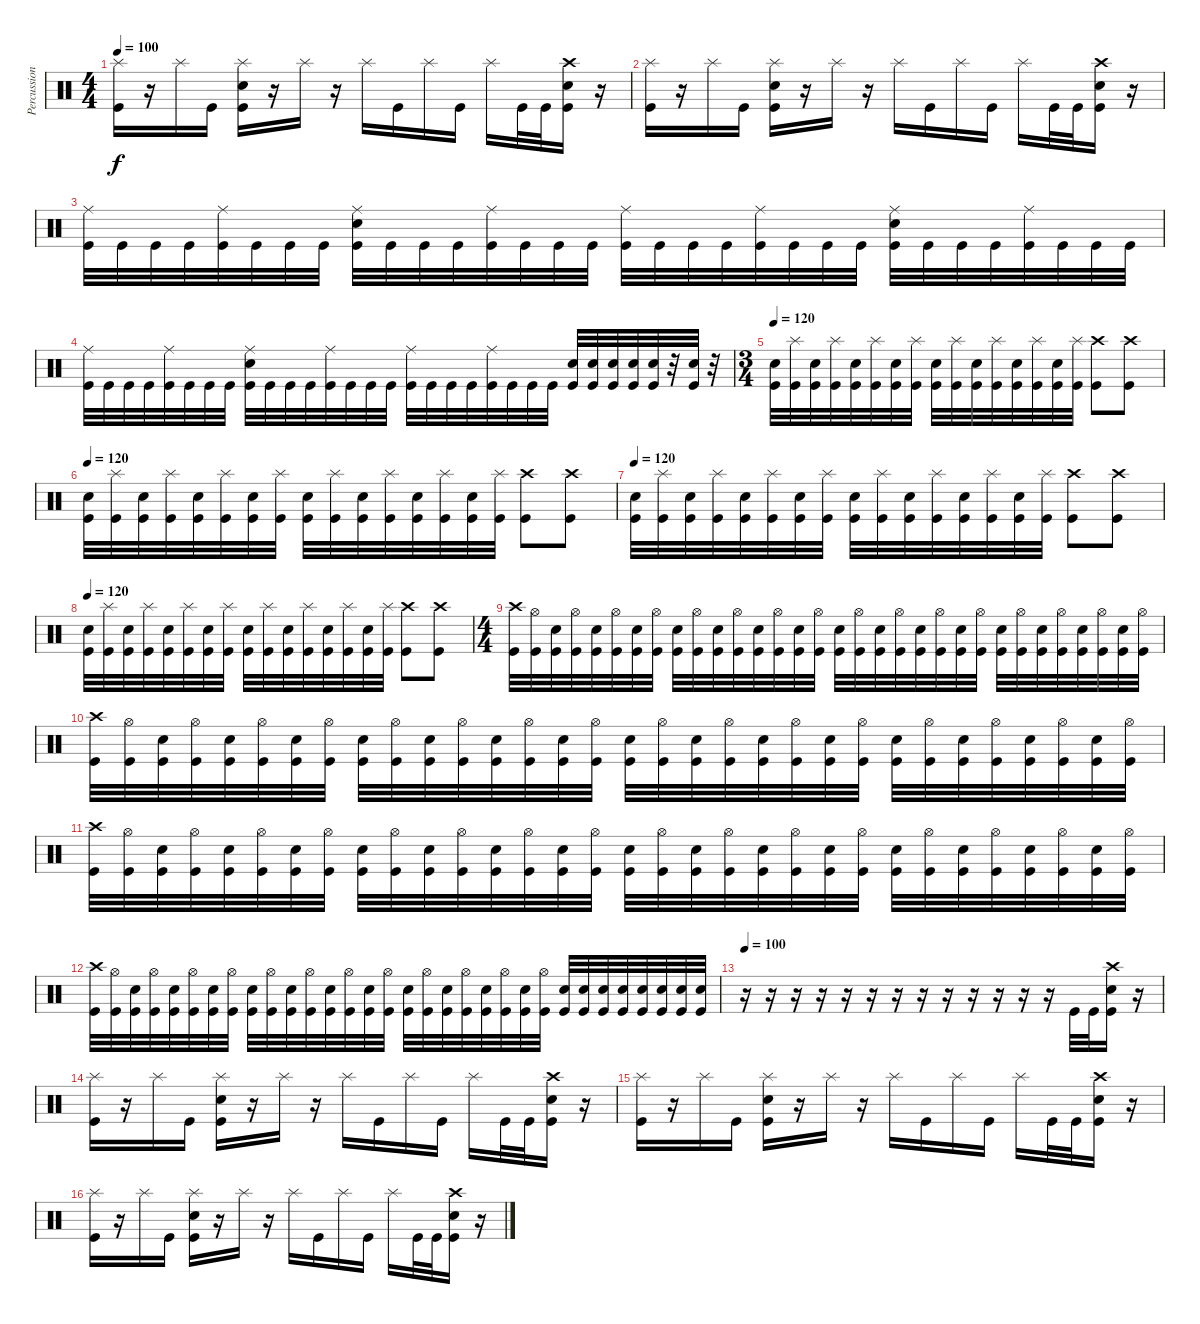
\track ("Percussion" "Percussion") {instrument percussion}
\staff {score}
\articulation defaults
\ts (4 4)
\tempo 100
\clef neutral
\ks c
("Splash (hit)" "Kick (hit)").16{dy f volume 16} r.16 "Splash (hit)".16 "Kick (hit)".16 ("Splash (hit)" "Electric Snare (hit)" "Kick (hit)").16 r.16 "Splash (hit)".16 r.16 "Splash (hit)".16 "Kick (hit)".16 "Splash (hit)".16 "Kick (hit)".16 "Splash (hit)".16 "Kick (hit)".32 "Kick (hit)".32 ("Crash high (hit)" "Electric Snare (hit)" "Kick (hit)").16 r.16 |
("Splash (hit)" "Kick (hit)").16{volume 16} r.16 "Splash (hit)".16 "Kick (hit)".16 ("Splash (hit)" "Electric Snare (hit)" "Kick (hit)").16 r.16 "Splash (hit)".16 r.16 "Splash (hit)".16 "Kick (hit)".16 "Splash (hit)".16 "Kick (hit)".16 "Splash (hit)".16 "Kick (hit)".32 "Kick (hit)".32 ("Crash high (hit)" "Electric Snare (hit)" "Kick (hit)").16 r.16 |
("Ride (middle)" "Kick (hit)").32 "Kick (hit)".32 "Kick (hit)".32 "Kick (hit)".32 ("Ride (middle)" "Kick (hit)").32 "Kick (hit)".32 "Kick (hit)".32 "Kick (hit)".32 ("Ride (middle)" "Electric Snare (hit)" "Kick (hit)").32 "Kick (hit)".32 "Kick (hit)".32 "Kick (hit)".32 ("Ride (middle)" "Kick (hit)").32 "Kick (hit)".32 "Kick (hit)".32 "Kick (hit)".32 ("Ride (middle)" "Kick (hit)").32 "Kick (hit)".32 "Kick (hit)".32 "Kick (hit)".32 ("Ride (middle)" "Kick (hit)").32 "Kick (hit)".32 "Kick (hit)".32 "Kick (hit)".32 ("Ride (middle)" "Electric Snare (hit)" "Kick (hit)").32 "Kick (hit)".32 "Kick (hit)".32 "Kick (hit)".32 ("Ride (middle)" "Kick (hit)").32 "Kick (hit)".32 "Kick (hit)".32 "Kick (hit)".32 |
("Ride (middle)" "Kick (hit)").32 "Kick (hit)".32 "Kick (hit)".32 "Kick (hit)".32 ("Ride (middle)" "Kick (hit)").32 "Kick (hit)".32 "Kick (hit)".32 "Kick (hit)".32 ("Ride (middle)" "Electric Snare (hit)" "Kick (hit)").32 "Kick (hit)".32 "Kick (hit)".32 "Kick (hit)".32 ("Ride (middle)" "Kick (hit)").32 "Kick (hit)".32 "Kick (hit)".32 "Kick (hit)".32 ("Ride (middle)" "Kick (hit)").32 "Kick (hit)".32 "Kick (hit)".32 "Kick (hit)".32 ("Ride (middle)" "Kick (hit)").32 "Kick (hit)".32 "Kick (hit)".32 "Kick (hit)".32 ("Electric Snare (hit)" "Kick (hit)").32 ("Electric Snare (hit)" "Kick (hit)").32 ("Electric Snare (hit)" "Kick (hit)").32 ("Electric Snare (hit)" "Kick (hit)").32 ("Electric Snare (hit)" "Kick (hit)").32 r.32 ("Electric Snare (hit)" "Kick (hit)").32 r.32 |
\ts (3 4)
\tempo 120
("Electric Snare (hit)" "Kick (hit)").32 ("Splash (hit)" "Kick (hit)").32 ("Electric Snare (hit)" "Kick (hit)").32 ("Splash (hit)" "Kick (hit)").32 ("Electric Snare (hit)" "Kick (hit)").32 ("Splash (hit)" "Kick (hit)").32 ("Electric Snare (hit)" "Kick (hit)").32 ("Splash (hit)" "Kick (hit)").32 ("Electric Snare (hit)" "Kick (hit)").32 ("Splash (hit)" "Kick (hit)").32 ("Electric Snare (hit)" "Kick (hit)").32 ("Splash (hit)" "Kick (hit)").32 ("Electric Snare (hit)" "Kick (hit)").32 ("Splash (hit)" "Kick (hit)").32 ("Electric Snare (hit)" "Kick (hit)").32 ("Splash (hit)" "Kick (hit)").32 ("Crash high (hit)" "Kick (hit)").8 ("Crash high (hit)" "Kick (hit)").8 |
\tempo 120
("Electric Snare (hit)" "Kick (hit)").32 ("Splash (hit)" "Kick (hit)").32 ("Electric Snare (hit)" "Kick (hit)").32 ("Splash (hit)" "Kick (hit)").32 ("Electric Snare (hit)" "Kick (hit)").32 ("Splash (hit)" "Kick (hit)").32 ("Electric Snare (hit)" "Kick (hit)").32 ("Splash (hit)" "Kick (hit)").32 ("Electric Snare (hit)" "Kick (hit)").32 ("Splash (hit)" "Kick (hit)").32 ("Electric Snare (hit)" "Kick (hit)").32 ("Splash (hit)" "Kick (hit)").32 ("Electric Snare (hit)" "Kick (hit)").32 ("Splash (hit)" "Kick (hit)").32 ("Electric Snare (hit)" "Kick (hit)").32 ("Splash (hit)" "Kick (hit)").32 ("Crash high (hit)" "Kick (hit)").8 ("Crash high (hit)" "Kick (hit)").8 |
\tempo 120
("Electric Snare (hit)" "Kick (hit)").32 ("Splash (hit)" "Kick (hit)").32 ("Electric Snare (hit)" "Kick (hit)").32 ("Splash (hit)" "Kick (hit)").32 ("Electric Snare (hit)" "Kick (hit)").32 ("Splash (hit)" "Kick (hit)").32 ("Electric Snare (hit)" "Kick (hit)").32 ("Splash (hit)" "Kick (hit)").32 ("Electric Snare (hit)" "Kick (hit)").32 ("Splash (hit)" "Kick (hit)").32 ("Electric Snare (hit)" "Kick (hit)").32 ("Splash (hit)" "Kick (hit)").32 ("Electric Snare (hit)" "Kick (hit)").32 ("Splash (hit)" "Kick (hit)").32 ("Electric Snare (hit)" "Kick (hit)").32 ("Splash (hit)" "Kick (hit)").32 ("Crash high (hit)" "Kick (hit)").8 ("Crash high (hit)" "Kick (hit)").8 |
\tempo 120
("Electric Snare (hit)" "Kick (hit)").32 ("Splash (hit)" "Kick (hit)").32 ("Electric Snare (hit)" "Kick (hit)").32 ("Splash (hit)" "Kick (hit)").32 ("Electric Snare (hit)" "Kick (hit)").32 ("Splash (hit)" "Kick (hit)").32 ("Electric Snare (hit)" "Kick (hit)").32 ("Splash (hit)" "Kick (hit)").32 ("Electric Snare (hit)" "Kick (hit)").32 ("Splash (hit)" "Kick (hit)").32 ("Electric Snare (hit)" "Kick (hit)").32 ("Splash (hit)" "Kick (hit)").32 ("Electric Snare (hit)" "Kick (hit)").32 ("Splash (hit)" "Kick (hit)").32 ("Electric Snare (hit)" "Kick (hit)").32 ("Splash (hit)" "Kick (hit)").32 ("Crash high (hit)" "Kick (hit)").8 ("Crash high (hit)" "Kick (hit)").8 |
\ts (4 4)
("Crash high (hit)" "Kick (hit)").32 ("Hi-Hat (open)" "Kick (hit)").32 ("Electric Snare (hit)" "Kick (hit)").32 ("Hi-Hat (open)" "Kick (hit)").32 ("Electric Snare (hit)" "Kick (hit)").32 ("Hi-Hat (open)" "Kick (hit)").32 ("Electric Snare (hit)" "Kick (hit)").32 ("Hi-Hat (open)" "Kick (hit)").32 ("Electric Snare (hit)" "Kick (hit)").32 ("Hi-Hat (open)" "Kick (hit)").32 ("Electric Snare (hit)" "Kick (hit)").32 ("Hi-Hat (open)" "Kick (hit)").32 ("Electric Snare (hit)" "Kick (hit)").32 ("Hi-Hat (open)" "Kick (hit)").32 ("Electric Snare (hit)" "Kick (hit)").32 ("Hi-Hat (open)" "Kick (hit)").32 ("Electric Snare (hit)" "Kick (hit)").32 ("Hi-Hat (open)" "Kick (hit)").32 ("Electric Snare (hit)" "Kick (hit)").32 ("Hi-Hat (open)" "Kick (hit)").32 ("Electric Snare (hit)" "Kick (hit)").32 ("Hi-Hat (open)" "Kick (hit)").32 ("Electric Snare (hit)" "Kick (hit)").32 ("Hi-Hat (open)" "Kick (hit)").32 ("Electric Snare (hit)" "Kick (hit)").32 ("Hi-Hat (open)" "Kick (hit)").32 ("Electric Snare (hit)" "Kick (hit)").32 ("Hi-Hat (open)" "Kick (hit)").32 ("Electric Snare (hit)" "Kick (hit)").32 ("Hi-Hat (open)" "Kick (hit)").32 ("Electric Snare (hit)" "Kick (hit)").32 ("Hi-Hat (open)" "Kick (hit)").32 |
("Crash high (hit)" "Kick (hit)").32 ("Hi-Hat (open)" "Kick (hit)").32 ("Electric Snare (hit)" "Kick (hit)").32 ("Hi-Hat (open)" "Kick (hit)").32 ("Electric Snare (hit)" "Kick (hit)").32 ("Hi-Hat (open)" "Kick (hit)").32 ("Electric Snare (hit)" "Kick (hit)").32 ("Hi-Hat (open)" "Kick (hit)").32 ("Electric Snare (hit)" "Kick (hit)").32 ("Hi-Hat (open)" "Kick (hit)").32 ("Electric Snare (hit)" "Kick (hit)").32 ("Hi-Hat (open)" "Kick (hit)").32 ("Electric Snare (hit)" "Kick (hit)").32 ("Hi-Hat (open)" "Kick (hit)").32 ("Electric Snare (hit)" "Kick (hit)").32 ("Hi-Hat (open)" "Kick (hit)").32 ("Electric Snare (hit)" "Kick (hit)").32 ("Hi-Hat (open)" "Kick (hit)").32 ("Electric Snare (hit)" "Kick (hit)").32 ("Hi-Hat (open)" "Kick (hit)").32 ("Electric Snare (hit)" "Kick (hit)").32 ("Hi-Hat (open)" "Kick (hit)").32 ("Electric Snare (hit)" "Kick (hit)").32 ("Hi-Hat (open)" "Kick (hit)").32 ("Electric Snare (hit)" "Kick (hit)").32 ("Hi-Hat (open)" "Kick (hit)").32 ("Electric Snare (hit)" "Kick (hit)").32 ("Hi-Hat (open)" "Kick (hit)").32 ("Electric Snare (hit)" "Kick (hit)").32 ("Hi-Hat (open)" "Kick (hit)").32 ("Electric Snare (hit)" "Kick (hit)").32 ("Hi-Hat (open)" "Kick (hit)").32 |
("Crash high (hit)" "Kick (hit)").32 ("Hi-Hat (open)" "Kick (hit)").32 ("Electric Snare (hit)" "Kick (hit)").32 ("Hi-Hat (open)" "Kick (hit)").32 ("Electric Snare (hit)" "Kick (hit)").32 ("Hi-Hat (open)" "Kick (hit)").32 ("Electric Snare (hit)" "Kick (hit)").32 ("Hi-Hat (open)" "Kick (hit)").32 ("Electric Snare (hit)" "Kick (hit)").32 ("Hi-Hat (open)" "Kick (hit)").32 ("Electric Snare (hit)" "Kick (hit)").32 ("Hi-Hat (open)" "Kick (hit)").32 ("Electric Snare (hit)" "Kick (hit)").32 ("Hi-Hat (open)" "Kick (hit)").32 ("Electric Snare (hit)" "Kick (hit)").32 ("Hi-Hat (open)" "Kick (hit)").32 ("Electric Snare (hit)" "Kick (hit)").32 ("Hi-Hat (open)" "Kick (hit)").32 ("Electric Snare (hit)" "Kick (hit)").32 ("Hi-Hat (open)" "Kick (hit)").32 ("Electric Snare (hit)" "Kick (hit)").32 ("Hi-Hat (open)" "Kick (hit)").32 ("Electric Snare (hit)" "Kick (hit)").32 ("Hi-Hat (open)" "Kick (hit)").32 ("Electric Snare (hit)" "Kick (hit)").32 ("Hi-Hat (open)" "Kick (hit)").32 ("Electric Snare (hit)" "Kick (hit)").32 ("Hi-Hat (open)" "Kick (hit)").32 ("Electric Snare (hit)" "Kick (hit)").32 ("Hi-Hat (open)" "Kick (hit)").32 ("Electric Snare (hit)" "Kick (hit)").32 ("Hi-Hat (open)" "Kick (hit)").32 |
("Crash high (hit)" "Kick (hit)").32 ("Hi-Hat (open)" "Kick (hit)").32 ("Electric Snare (hit)" "Kick (hit)").32 ("Hi-Hat (open)" "Kick (hit)").32 ("Electric Snare (hit)" "Kick (hit)").32 ("Hi-Hat (open)" "Kick (hit)").32 ("Electric Snare (hit)" "Kick (hit)").32 ("Hi-Hat (open)" "Kick (hit)").32 ("Electric Snare (hit)" "Kick (hit)").32 ("Hi-Hat (open)" "Kick (hit)").32 ("Electric Snare (hit)" "Kick (hit)").32 ("Hi-Hat (open)" "Kick (hit)").32 ("Electric Snare (hit)" "Kick (hit)").32 ("Hi-Hat (open)" "Kick (hit)").32 ("Electric Snare (hit)" "Kick (hit)").32 ("Hi-Hat (open)" "Kick (hit)").32 ("Electric Snare (hit)" "Kick (hit)").32 ("Hi-Hat (open)" "Kick (hit)").32 ("Electric Snare (hit)" "Kick (hit)").32 ("Hi-Hat (open)" "Kick (hit)").32 ("Electric Snare (hit)" "Kick (hit)").32 ("Hi-Hat (open)" "Kick (hit)").32 ("Electric Snare (hit)" "Kick (hit)").32 ("Hi-Hat (open)" "Kick (hit)").32 ("Electric Snare (hit)" "Kick (hit)").32 ("Electric Snare (hit)" "Kick (hit)").32 ("Electric Snare (hit)" "Kick (hit)").32 ("Electric Snare (hit)" "Kick (hit)").32 ("Electric Snare (hit)" "Kick (hit)").32 ("Electric Snare (hit)" "Kick (hit)").32 ("Electric Snare (hit)" "Kick (hit)").32 ("Electric Snare (hit)" "Kick (hit)").32 |
\tempo 100
r.16 r.16 r.16 r.16 r.16 r.16 r.16 r.16 r.16 r.16 r.16 r.16 r.16 "Kick (hit)".32 "Kick (hit)".32 ("Crash high (hit)" "Electric Snare (hit)" "Kick (hit)").16 r.16 |
("Splash (hit)" "Kick (hit)").16 r.16 "Splash (hit)".16 "Kick (hit)".16 ("Splash (hit)" "Electric Snare (hit)" "Kick (hit)").16 r.16 "Splash (hit)".16 r.16 "Splash (hit)".16 "Kick (hit)".16 "Splash (hit)".16 "Kick (hit)".16 "Splash (hit)".16 "Kick (hit)".32 "Kick (hit)".32 ("Crash high (hit)" "Electric Snare (hit)" "Kick (hit)").16 r.16 |
("Splash (hit)" "Kick (hit)").16 r.16 "Splash (hit)".16 "Kick (hit)".16 ("Splash (hit)" "Electric Snare (hit)" "Kick (hit)").16 r.16 "Splash (hit)".16 r.16 "Splash (hit)".16 "Kick (hit)".16 "Splash (hit)".16 "Kick (hit)".16 "Splash (hit)".16 "Kick (hit)".32 "Kick (hit)".32 ("Crash high (hit)" "Electric Snare (hit)" "Kick (hit)").16 r.16 |
("Splash (hit)" "Kick (hit)").16 r.16 "Splash (hit)".16 "Kick (hit)".16 ("Splash (hit)" "Electric Snare (hit)" "Kick (hit)").16 r.16 "Splash (hit)".16 r.16 "Splash (hit)".16 "Kick (hit)".16 "Splash (hit)".16 "Kick (hit)".16 "Splash (hit)".16 "Kick (hit)".32 "Kick (hit)".32 ("Crash high (hit)" "Electric Snare (hit)" "Kick (hit)").16 r.16
